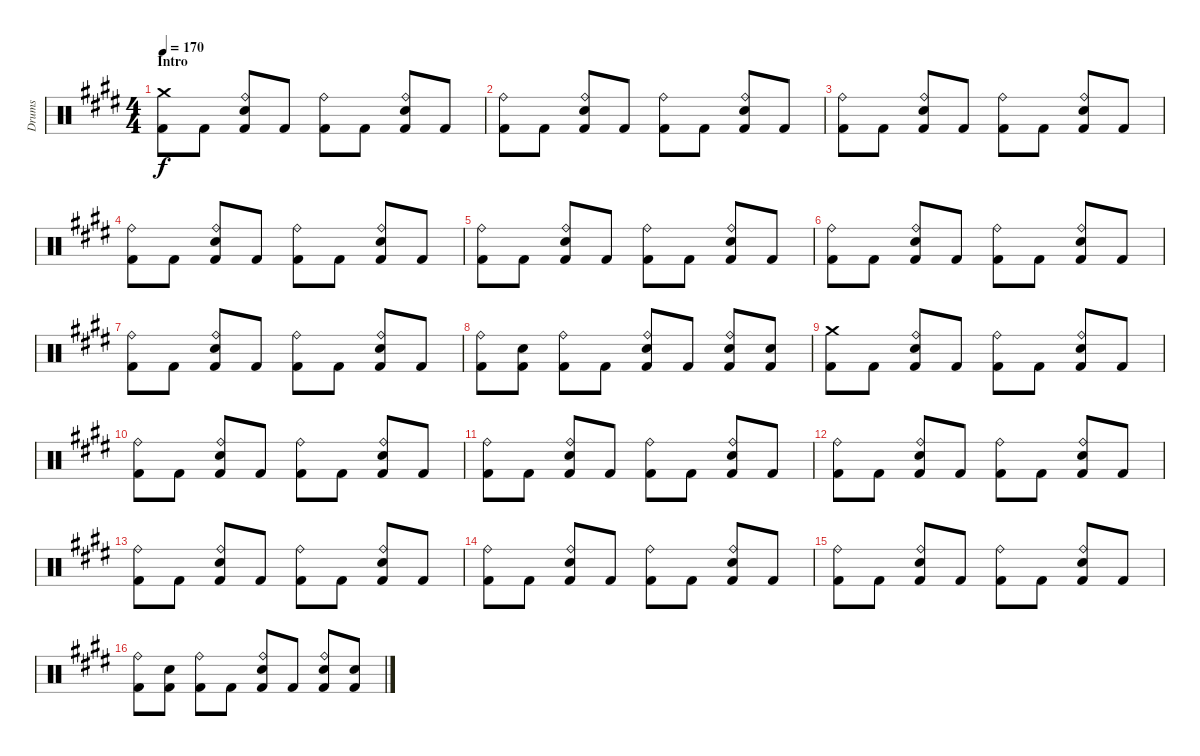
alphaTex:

\track ("Drums" "Drums") {instrument percussion}
\staff {score}
\articulation defaults
\ts (4 4)
\section ("" "Intro")
\tempo 170
\clef neutral
\ks c#minor
("Crash medium (hit)" "Kick (hit) 2").8{dy f} "Kick (hit) 2".8 ("Ride (bell)" "Electric Snare (hit)" "Kick (hit) 2").8 "Kick (hit) 2".8 ("Ride (bell)" "Kick (hit) 2").8 "Kick (hit) 2".8 ("Ride (bell)" "Electric Snare (hit)" "Kick (hit) 2").8 "Kick (hit) 2".8 |
("Ride (bell)" "Kick (hit) 2").8 "Kick (hit) 2".8 ("Ride (bell)" "Electric Snare (hit)" "Kick (hit) 2").8 "Kick (hit) 2".8 ("Ride (bell)" "Kick (hit) 2").8 "Kick (hit) 2".8 ("Ride (bell)" "Electric Snare (hit)" "Kick (hit) 2").8 "Kick (hit) 2".8 |
("Ride (bell)" "Kick (hit) 2").8 "Kick (hit) 2".8 ("Ride (bell)" "Electric Snare (hit)" "Kick (hit) 2").8 "Kick (hit) 2".8 ("Ride (bell)" "Kick (hit) 2").8 "Kick (hit) 2".8 ("Ride (bell)" "Electric Snare (hit)" "Kick (hit) 2").8 "Kick (hit) 2".8 |
("Ride (bell)" "Kick (hit) 2").8 "Kick (hit) 2".8 ("Ride (bell)" "Electric Snare (hit)" "Kick (hit) 2").8 "Kick (hit) 2".8 ("Ride (bell)" "Kick (hit) 2").8 "Kick (hit) 2".8 ("Ride (bell)" "Electric Snare (hit)" "Kick (hit) 2").8 "Kick (hit) 2".8 |
("Ride (bell)" "Kick (hit) 2").8 "Kick (hit) 2".8 ("Ride (bell)" "Electric Snare (hit)" "Kick (hit) 2").8 "Kick (hit) 2".8 ("Ride (bell)" "Kick (hit) 2").8 "Kick (hit) 2".8 ("Ride (bell)" "Electric Snare (hit)" "Kick (hit) 2").8 "Kick (hit) 2".8 |
("Ride (bell)" "Kick (hit) 2").8 "Kick (hit) 2".8 ("Ride (bell)" "Electric Snare (hit)" "Kick (hit) 2").8 "Kick (hit) 2".8 ("Ride (bell)" "Kick (hit) 2").8 "Kick (hit) 2".8 ("Ride (bell)" "Electric Snare (hit)" "Kick (hit) 2").8 "Kick (hit) 2".8 |
("Ride (bell)" "Kick (hit) 2").8 "Kick (hit) 2".8 ("Ride (bell)" "Electric Snare (hit)" "Kick (hit) 2").8 "Kick (hit) 2".8 ("Ride (bell)" "Kick (hit) 2").8 "Kick (hit) 2".8 ("Ride (bell)" "Electric Snare (hit)" "Kick (hit) 2").8 "Kick (hit) 2".8 |
("Ride (bell)" "Kick (hit) 2").8 ("Electric Snare (hit)" "Kick (hit) 2").8 ("Ride (bell)" "Kick (hit) 2").8 "Kick (hit) 2".8 ("Ride (bell)" "Electric Snare (hit)" "Kick (hit) 2").8 "Kick (hit) 2".8 ("Ride (bell)" "Electric Snare (hit)" "Kick (hit) 2").8 ("Electric Snare (hit)" "Kick (hit) 2").8 |
("Crash medium (hit)" "Kick (hit) 2").8 "Kick (hit) 2".8 ("Ride (bell)" "Electric Snare (hit)" "Kick (hit) 2").8 "Kick (hit) 2".8 ("Ride (bell)" "Kick (hit) 2").8 "Kick (hit) 2".8 ("Ride (bell)" "Electric Snare (hit)" "Kick (hit) 2").8 "Kick (hit) 2".8 |
("Ride (bell)" "Kick (hit) 2").8 "Kick (hit) 2".8 ("Ride (bell)" "Electric Snare (hit)" "Kick (hit) 2").8 "Kick (hit) 2".8 ("Ride (bell)" "Kick (hit) 2").8 "Kick (hit) 2".8 ("Ride (bell)" "Electric Snare (hit)" "Kick (hit) 2").8 "Kick (hit) 2".8 |
("Ride (bell)" "Kick (hit) 2").8 "Kick (hit) 2".8 ("Ride (bell)" "Electric Snare (hit)" "Kick (hit) 2").8 "Kick (hit) 2".8 ("Ride (bell)" "Kick (hit) 2").8 "Kick (hit) 2".8 ("Ride (bell)" "Electric Snare (hit)" "Kick (hit) 2").8 "Kick (hit) 2".8 |
("Ride (bell)" "Kick (hit) 2").8 "Kick (hit) 2".8 ("Ride (bell)" "Electric Snare (hit)" "Kick (hit) 2").8 "Kick (hit) 2".8 ("Ride (bell)" "Kick (hit) 2").8 "Kick (hit) 2".8 ("Ride (bell)" "Electric Snare (hit)" "Kick (hit) 2").8 "Kick (hit) 2".8 |
("Ride (bell)" "Kick (hit) 2").8 "Kick (hit) 2".8 ("Ride (bell)" "Electric Snare (hit)" "Kick (hit) 2").8 "Kick (hit) 2".8 ("Ride (bell)" "Kick (hit) 2").8 "Kick (hit) 2".8 ("Ride (bell)" "Electric Snare (hit)" "Kick (hit) 2").8 "Kick (hit) 2".8 |
("Ride (bell)" "Kick (hit) 2").8 "Kick (hit) 2".8 ("Ride (bell)" "Electric Snare (hit)" "Kick (hit) 2").8 "Kick (hit) 2".8 ("Ride (bell)" "Kick (hit) 2").8 "Kick (hit) 2".8 ("Ride (bell)" "Electric Snare (hit)" "Kick (hit) 2").8 "Kick (hit) 2".8 |
("Ride (bell)" "Kick (hit) 2").8 "Kick (hit) 2".8 ("Ride (bell)" "Electric Snare (hit)" "Kick (hit) 2").8 "Kick (hit) 2".8 ("Ride (bell)" "Kick (hit) 2").8 "Kick (hit) 2".8 ("Ride (bell)" "Electric Snare (hit)" "Kick (hit) 2").8 "Kick (hit) 2".8 |
("Ride (bell)" "Kick (hit) 2").8 ("Electric Snare (hit)" "Kick (hit) 2").8 ("Ride (bell)" "Kick (hit) 2").8 "Kick (hit) 2".8 ("Ride (bell)" "Electric Snare (hit)" "Kick (hit) 2").8 "Kick (hit) 2".8 ("Ride (bell)" "Electric Snare (hit)" "Kick (hit) 2").8 ("Electric Snare (hit)" "Kick (hit) 2").8
